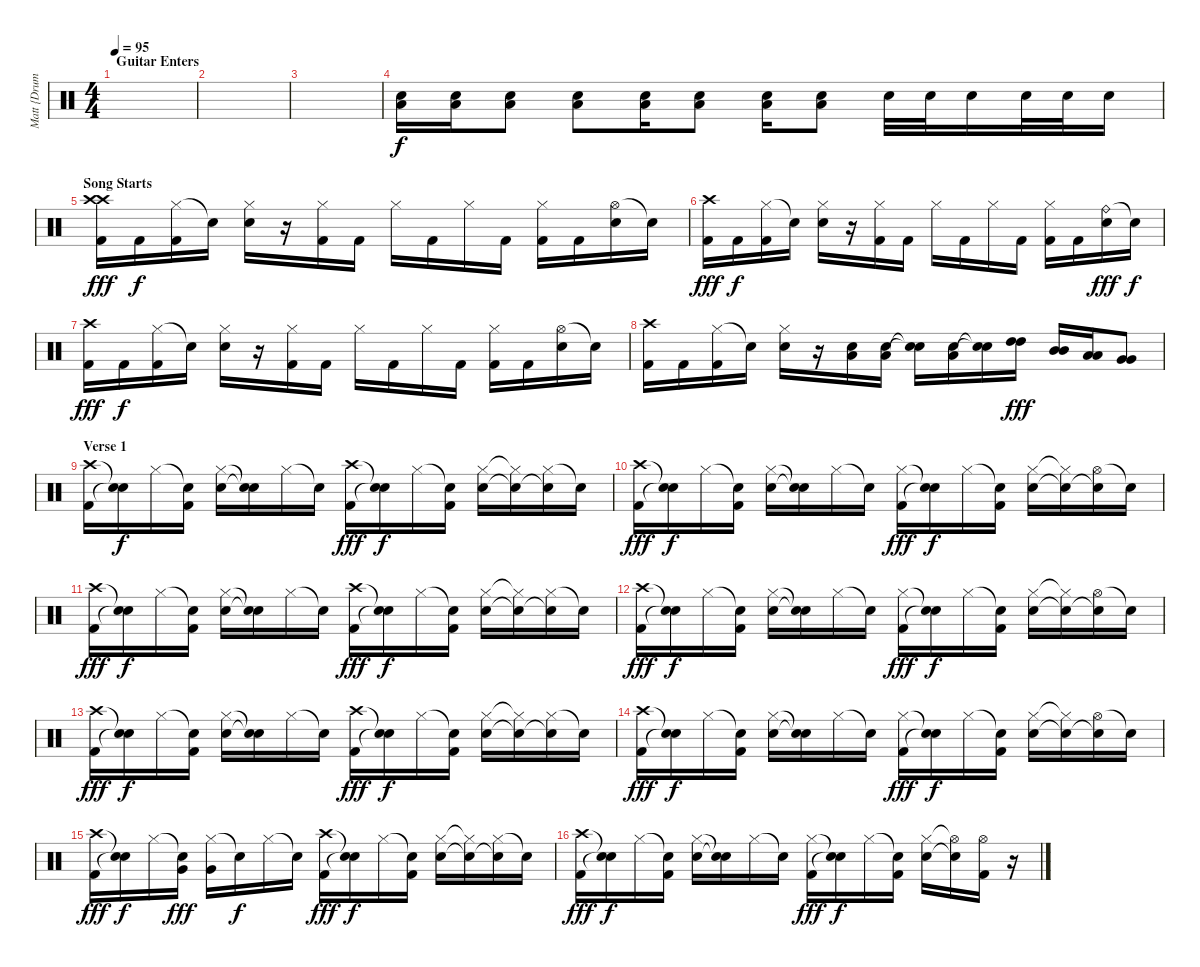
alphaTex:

\track ("Matt {Drums}" "Matt {Drum") {instrument percussion}
\staff {score}
\articulation defaults
\ts (4 4)
\section ("" "Guitar Enters")
\tempo 95
\clef neutral
\ks c
|
|
|
("Low Tom (hit)" "Electric Snare (hit)").16 ("Low Tom (hit)" "Electric Snare (hit)").16 ("Low Tom (hit)" "Electric Snare (hit)").8 ("Low Tom (hit)" "Electric Snare (hit)").8 ("Low Tom (hit)" "Electric Snare (hit)").16 ("Low Tom (hit)" "Electric Snare (hit)").8 ("Low Tom (hit)" "Electric Snare (hit)").16 ("Low Tom (hit)" "Electric Snare (hit)").8 "Electric Snare (hit)".32 "Electric Snare (hit)".32 "Electric Snare (hit)".16 "Electric Snare (hit)".32 "Electric Snare (hit)".32 "Electric Snare (hit)".16 |
\section ("" "Song Starts")
("Crash high (hit)" "Crash high (hit)" "Kick (hit) 2").16{dy fff} "Kick (hit) 2".16{dy f} ("Hi-Hat (closed)" "Kick (hit) 2").16 "Electric Snare (hit)"{t}.16 ("Hi-Hat (closed)" "Electric Snare (hit)").16 r.16 ("Hi-Hat (closed)" "Kick (hit) 2").16 "Kick (hit) 2".16 "Hi-Hat (closed)".16 "Kick (hit) 2".16 "Hi-Hat (closed)".16 "Kick (hit) 2".16 ("Hi-Hat (closed)" "Kick (hit) 2").16 "Kick (hit) 2".16 ("Hi-Hat (open)" "Electric Snare (hit)").16 "Snare (hit)"{t}.16 |
("Crash high (hit)" "Kick (hit) 2").16{dy fff} "Kick (hit) 2".16{dy f} ("Hi-Hat (closed)" "Kick (hit) 2").16 "Electric Snare (hit)"{t}.16 ("Hi-Hat (closed)" "Electric Snare (hit)").16 r.16 ("Hi-Hat (closed)" "Kick (hit) 2").16 "Kick (hit) 2".16 "Hi-Hat (closed)".16 "Kick (hit) 2".16 "Hi-Hat (closed)".16 "Kick (hit) 2".16 ("Hi-Hat (closed)" "Kick (hit) 2").16 "Kick (hit) 2".16 ("Ride (bell)" "Electric Snare (hit)").16{dy fff} "Snare (hit)"{t}.16{dy f} |
("Crash high (hit)" "Kick (hit) 2").16{dy fff} "Kick (hit) 2".16{dy f} ("Hi-Hat (closed)" "Kick (hit) 2").16 "Electric Snare (hit)"{t}.16 ("Hi-Hat (closed)" "Electric Snare (hit)").16 r.16 ("Hi-Hat (closed)" "Kick (hit) 2").16 "Kick (hit) 2".16 "Hi-Hat (closed)".16 "Kick (hit) 2".16 "Hi-Hat (closed)".16 "Kick (hit) 2".16 ("Hi-Hat (closed)" "Kick (hit) 2").16 "Kick (hit) 2".16 ("Hi-Hat (open)" "Electric Snare (hit)").16 "Snare (hit)"{t}.16 |
("Crash high (hit)" "Kick (hit) 2").16 "Kick (hit) 2".16 ("Hi-Hat (closed)" "Kick (hit) 2").16 "Snare (hit)"{t}.16 ("Hi-Hat (closed)" "Electric Snare (hit)").16 r.16 ("Low Tom (hit)" "Electric Snare (hit)").16 ("Low Tom (hit)" "Electric Snare (hit)").16 ("Snare (hit)"{t} "Snare (hit)"{t}).16 ("Low Tom (hit)" "Electric Snare (hit)").16 ("Snare (hit)"{t} "Snare (hit)"{t}).16 ("High Tom (hit)" "High Tom (hit)").16{dy fff} ("Mid Tom (hit)" "Mid Tom (hit)").16 ("Low Tom (hit)" "Low Tom (hit)").16 ("Very Low Tom (hit)" "Very Low Tom (hit)").8 |
\section ("" "Verse 1")
("Crash high (hit)" "Kick (hit) 2").16 ("Snare (hit)"{t} "Snare (hit)"{t}).16{dy f} "Hi-Hat (closed)".16 ("Snare (hit)"{t} "Kick (hit) 2").16 ("Hi-Hat (closed)" "Electric Snare (hit)").16 ("Snare (hit)"{t} "Snare (hit)"{t}).16 "Hi-Hat (closed)".16 "Snare (hit)"{t}.16 ("Crash high (hit)" "Kick (hit) 2").16{dy fff} ("Snare (hit)"{t} "Snare (hit)"{t}).16{dy f} "Hi-Hat (closed)".16 ("Snare (hit)"{t} "Kick (hit) 2").16 ("Hi-Hat (closed)" "Electric Snare (hit)").16 ("Hi-Hat (closed)"{t} "Snare (hit)"{t}).16 ("Hi-Hat (closed)" "Snare (hit)"{t}).16 "Snare (hit)"{t}.16 |
("Crash high (hit)" "Kick (hit) 2").16{dy fff} ("Snare (hit)"{t} "Snare (hit)"{t}).16{dy f} "Hi-Hat (closed)".16 ("Snare (hit)"{t} "Kick (hit) 2").16 ("Hi-Hat (closed)" "Electric Snare (hit)").16 ("Snare (hit)"{t} "Snare (hit)"{t}).16 "Hi-Hat (closed)".16 "Snare (hit)"{t}.16 ("Hi-Hat (closed)" "Kick (hit) 2").16{dy fff} ("Snare (hit)"{t} "Snare (hit)"{t}).16{dy f} "Hi-Hat (closed)".16 ("Snare (hit)"{t} "Kick (hit) 2").16 ("Hi-Hat (closed)" "Electric Snare (hit)").16 ("Hi-Hat (closed)"{t} "Snare (hit)"{t}).16 ("Hi-Hat (open)" "Snare (hit)"{t}).16 "Snare (hit)"{t}.16 |
("Crash high (hit)" "Kick (hit) 2").16{dy fff} ("Snare (hit)"{t} "Snare (hit)"{t}).16{dy f} "Hi-Hat (closed)".16 ("Snare (hit)"{t} "Kick (hit) 2").16 ("Hi-Hat (closed)" "Electric Snare (hit)").16 ("Snare (hit)"{t} "Snare (hit)"{t}).16 "Hi-Hat (closed)".16 "Snare (hit)"{t}.16 ("Crash high (hit)" "Kick (hit) 2").16{dy fff} ("Snare (hit)"{t} "Snare (hit)"{t}).16{dy f} "Hi-Hat (closed)".16 ("Snare (hit)"{t} "Kick (hit) 2").16 ("Hi-Hat (closed)" "Electric Snare (hit)").16 ("Hi-Hat (closed)"{t} "Snare (hit)"{t}).16 ("Hi-Hat (closed)" "Snare (hit)"{t}).16 "Snare (hit)"{t}.16 |
("Crash high (hit)" "Kick (hit) 2").16{dy fff} ("Snare (hit)"{t} "Snare (hit)"{t}).16{dy f} "Hi-Hat (closed)".16 ("Snare (hit)"{t} "Kick (hit) 2").16 ("Hi-Hat (closed)" "Electric Snare (hit)").16 ("Snare (hit)"{t} "Snare (hit)"{t}).16 "Hi-Hat (closed)".16 "Snare (hit)"{t}.16 ("Hi-Hat (closed)" "Kick (hit) 2").16{dy fff} ("Snare (hit)"{t} "Snare (hit)"{t}).16{dy f} "Hi-Hat (closed)".16 ("Snare (hit)"{t} "Kick (hit) 2").16 ("Hi-Hat (closed)" "Electric Snare (hit)").16 ("Hi-Hat (closed)"{t} "Snare (hit)"{t}).16 ("Hi-Hat (open)" "Snare (hit)"{t}).16 "Snare (hit)"{t}.16 |
("Crash high (hit)" "Kick (hit) 2").16{dy fff} ("Snare (hit)"{t} "Snare (hit)"{t}).16{dy f} "Hi-Hat (closed)".16 ("Snare (hit)"{t} "Kick (hit) 2").16 ("Hi-Hat (closed)" "Electric Snare (hit)").16 ("Snare (hit)"{t} "Snare (hit)"{t}).16 "Hi-Hat (closed)".16 "Snare (hit)"{t}.16 ("Crash high (hit)" "Kick (hit) 2").16{dy fff} ("Snare (hit)"{t} "Snare (hit)"{t}).16{dy f} "Hi-Hat (closed)".16 ("Snare (hit)"{t} "Kick (hit) 2").16 ("Hi-Hat (closed)" "Electric Snare (hit)").16 ("Hi-Hat (closed)"{t} "Snare (hit)"{t}).16 ("Hi-Hat (closed)" "Snare (hit)"{t}).16 "Snare (hit)"{t}.16 |
("Crash high (hit)" "Kick (hit) 2").16{dy fff} ("Snare (hit)"{t} "Snare (hit)"{t}).16{dy f} "Hi-Hat (closed)".16 ("Snare (hit)"{t} "Kick (hit) 2").16 ("Hi-Hat (closed)" "Electric Snare (hit)").16 ("Snare (hit)"{t} "Snare (hit)"{t}).16 "Hi-Hat (closed)".16 "Snare (hit)"{t}.16 ("Hi-Hat (closed)" "Kick (hit) 2").16{dy fff} ("Snare (hit)"{t} "Snare (hit)"{t}).16{dy f} "Hi-Hat (closed)".16 ("Snare (hit)"{t} "Kick (hit) 2").16 ("Hi-Hat (closed)" "Electric Snare (hit)").16 ("Hi-Hat (closed)"{t} "Snare (hit)"{t}).16 ("Hi-Hat (open)" "Snare (hit)"{t}).16 "Snare (hit)"{t}.16 |
("Crash high (hit)" "Kick (hit) 2").16{dy fff} ("Snare (hit)"{t} "Snare (hit)"{t}).16{dy f} "Hi-Hat (closed)".16 ("Snare (hit)"{t} "Very Low Tom (hit)").16{dy fff} ("Hi-Hat (closed)" "Very Low Tom (hit)").16 "Snare (hit)"{t}.16{dy f} "Hi-Hat (closed)".16 "Snare (hit)"{t}.16 ("Crash high (hit)" "Kick (hit) 2").16{dy fff} ("Snare (hit)"{t} "Snare (hit)"{t}).16{dy f} "Hi-Hat (closed)".16 ("Snare (hit)"{t} "Kick (hit) 2").16 ("Hi-Hat (closed)" "Electric Snare (hit)").16 ("Hi-Hat (closed)"{t} "Snare (hit)"{t}).16 ("Hi-Hat (closed)" "Snare (hit)"{t}).16 "Snare (hit)"{t}.16 |
("Crash high (hit)" "Kick (hit) 2").16{dy fff} ("Snare (hit)"{t} "Snare (hit)"{t}).16{dy f} "Hi-Hat (closed)".16 ("Snare (hit)"{t} "Kick (hit) 2").16 ("Hi-Hat (closed)" "Electric Snare (hit)").16 ("Snare (hit)"{t} "Snare (hit)"{t}).16 "Hi-Hat (closed)".16 "Snare (hit)"{t}.16 ("Hi-Hat (closed)" "Kick (hit) 2").16{dy fff} ("Snare (hit)"{t} "Snare (hit)"{t}).16{dy f} "Hi-Hat (closed)".16 ("Snare (hit)"{t} "Kick (hit) 2").16 ("Hi-Hat (closed)" "Electric Snare (hit)").16 ("Hi-Hat (open)"{t} "Snare (hit)"{t}).16 ("Hi-Hat (open)" "Kick (hit) 2").16 r.16
